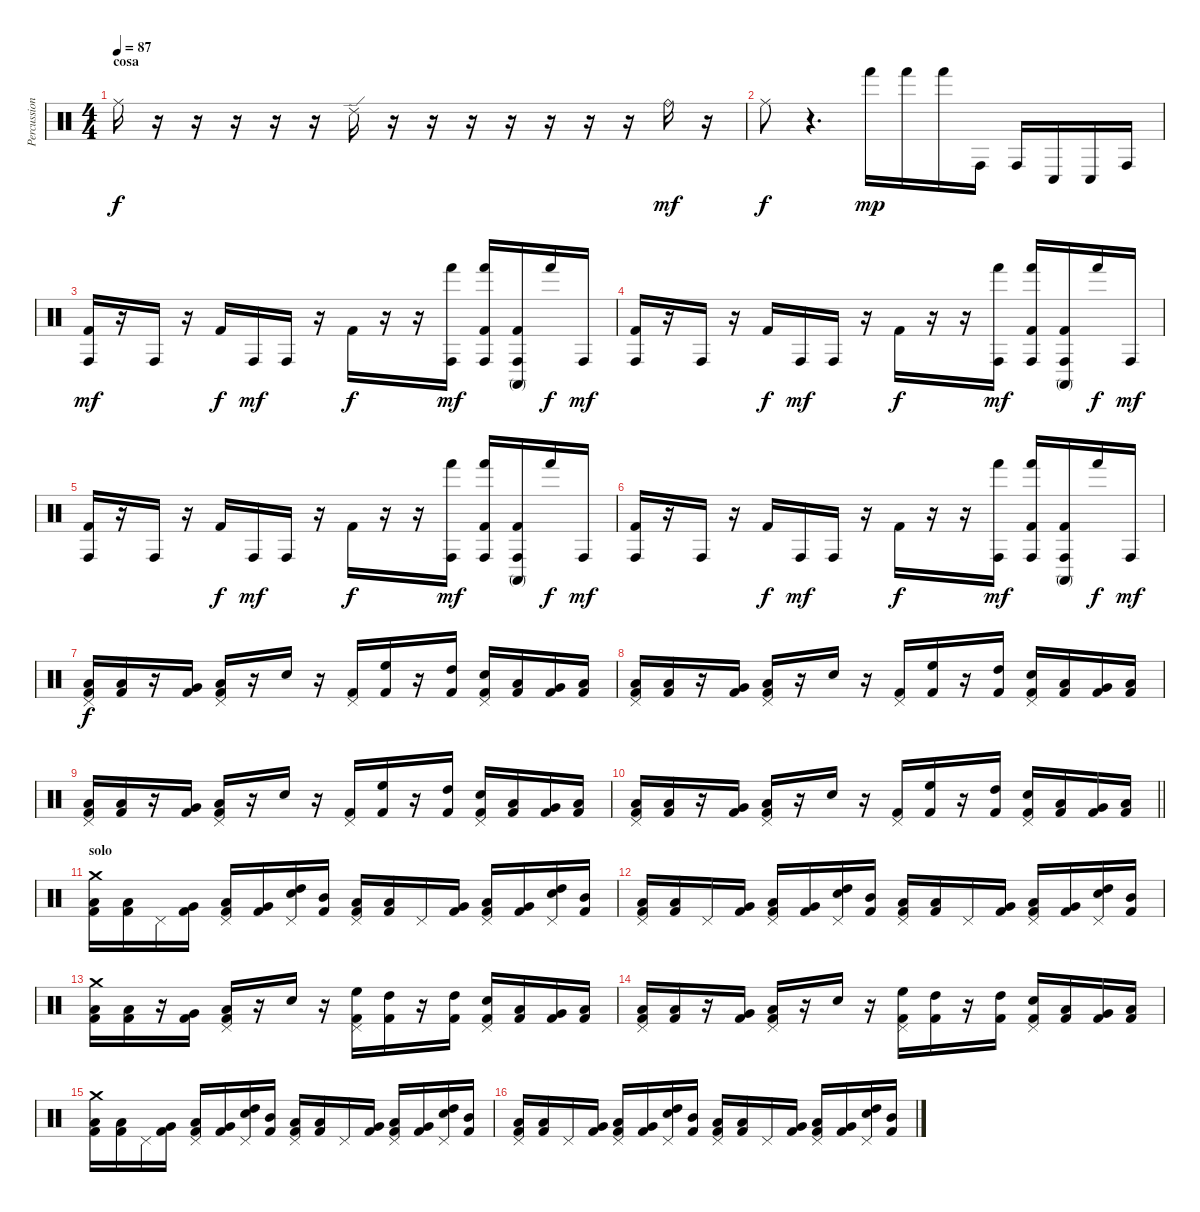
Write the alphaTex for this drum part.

\track ("Percussion" "Percussion") {instrument percussion}
\staff {score}
\articulation defaults
\ts (4 4)
\section ("" "cosa")
\tempo 87
\clef neutral
\ks c "Ride (middle)".16{dy f}
r.16 r.16 r.16 r.16 r.16 "Ride (edge) 2".16 r.16 r.16 r.16 r.16 r.16 r.16 r.16 "Ride (bell)".16{dy mf} r.16 |
"Ride (middle)".8{dy f} r.4{d} "Hand (hit)".16{dy mp} "Hand (hit)".16 "Hand (hit)".16 "Conga high (hit)".16 "Conga high (hit)".16 "Conga low (hit)".16 "Conga low (hit)".16 "Conga high (hit)".16 |
("Conga high (hit)" "Kick (hit) 2").16{dy mf} r.16 "Conga high (hit)".16 r.16 "Kick (hit) 2".16{dy f} "Conga high (hit)".16{dy mf} "Conga high (hit)".16 r.16 "Kick (hit) 2".16{dy f} r.16 r.16 ("Hand (hit)" "Conga high (hit)").16{dy mf} ("Hand (hit)" "Conga high (hit)" "Kick (hit) 2").16 ("Conga high (mute)" "Conga high (hit)" "Kick (hit) 2").16 "Hand (hit)".16{dy f} "Conga high (hit)".16{dy mf} |
("Conga high (hit)" "Kick (hit) 2").16 r.16 "Conga high (hit)".16 r.16 "Kick (hit) 2".16{dy f} "Conga high (hit)".16{dy mf} "Conga high (hit)".16 r.16 "Kick (hit) 2".16{dy f} r.16 r.16 ("Hand (hit)" "Conga high (hit)").16{dy mf} ("Hand (hit)" "Conga high (hit)" "Kick (hit) 2").16 ("Conga high (mute)" "Conga high (hit)" "Kick (hit) 2").16 "Hand (hit)".16{dy f} "Conga high (hit)".16{dy mf} |
("Conga high (hit)" "Kick (hit) 2").16 r.16 "Conga high (hit)".16 r.16 "Kick (hit) 2".16{dy f} "Conga high (hit)".16{dy mf} "Conga high (hit)".16 r.16 "Kick (hit) 2".16{dy f} r.16 r.16 ("Hand (hit)" "Conga high (hit)").16{dy mf} ("Hand (hit)" "Conga high (hit)" "Kick (hit) 2").16 ("Conga high (mute)" "Conga high (hit)" "Kick (hit) 2").16 "Hand (hit)".16{dy f} "Conga high (hit)".16{dy mf} |
("Conga high (hit)" "Kick (hit) 2").16 r.16 "Conga high (hit)".16 r.16 "Kick (hit) 2".16{dy f} "Conga high (hit)".16{dy mf} "Conga high (hit)".16 r.16 "Kick (hit) 2".16{dy f} r.16 r.16 ("Hand (hit)" "Conga high (hit)").16{dy mf} ("Hand (hit)" "Conga high (hit)" "Kick (hit) 2").16 ("Conga high (mute)" "Conga high (hit)" "Kick (hit) 2").16 "Hand (hit)".16{dy f} "Conga high (hit)".16{dy mf} |
("Pedal Hi-Hat (hit)" "Low Floor Tom (hit)" "Kick (hit) 2").16{dy f} ("Low Floor Tom (hit)" "Kick (hit) 2").16 r.16 ("Very Low Tom (hit)" "Kick (hit) 2").16 ("Pedal Hi-Hat (hit)" "Low Tom (hit)" "Kick (hit) 2").16 r.16 "Electric Snare (hit)".16 r.16 ("Pedal Hi-Hat (hit)" "Kick (hit) 2").16 ("High Floor Tom (hit)" "Kick (hit) 2").16 r.16 ("High Tom (hit)" "Kick (hit) 2").16 ("Pedal Hi-Hat (hit)" "Electric Snare (hit)" "Kick (hit) 2").16 ("Low Tom (hit)" "Kick (hit) 2").16 ("Very Low Tom (hit)" "Kick (hit) 2").16 ("Low Floor Tom (hit)" "Kick (hit) 2").16 |
("Pedal Hi-Hat (hit)" "Low Floor Tom (hit)" "Kick (hit) 2").16 ("Low Floor Tom (hit)" "Kick (hit) 2").16 r.16 ("Very Low Tom (hit)" "Kick (hit) 2").16 ("Pedal Hi-Hat (hit)" "Low Tom (hit)" "Kick (hit) 2").16 r.16 "Electric Snare (hit)".16 r.16 ("Pedal Hi-Hat (hit)" "Kick (hit) 2").16 ("High Floor Tom (hit)" "Kick (hit) 2").16 r.16 ("High Tom (hit)" "Kick (hit) 2").16 ("Pedal Hi-Hat (hit)" "Electric Snare (hit)" "Kick (hit) 2").16 ("Low Tom (hit)" "Kick (hit) 2").16 ("Very Low Tom (hit)" "Kick (hit) 2").16 ("Low Floor Tom (hit)" "Kick (hit) 2").16 |
("Pedal Hi-Hat (hit)" "Low Floor Tom (hit)" "Kick (hit) 2").16 ("Low Floor Tom (hit)" "Kick (hit) 2").16 r.16 ("Very Low Tom (hit)" "Kick (hit) 2").16 ("Pedal Hi-Hat (hit)" "Low Tom (hit)" "Kick (hit) 2").16 r.16 "Electric Snare (hit)".16 r.16 ("Pedal Hi-Hat (hit)" "Kick (hit) 2").16 ("High Floor Tom (hit)" "Kick (hit) 2").16 r.16 ("High Tom (hit)" "Kick (hit) 2").16 ("Pedal Hi-Hat (hit)" "Electric Snare (hit)" "Kick (hit) 2").16 ("Low Tom (hit)" "Kick (hit) 2").16 ("Very Low Tom (hit)" "Kick (hit) 2").16 ("Low Floor Tom (hit)" "Kick (hit) 2").16 |
\barLineRight lightlight
("Pedal Hi-Hat (hit)" "Low Floor Tom (hit)" "Kick (hit) 2").16 ("Low Floor Tom (hit)" "Kick (hit) 2").16 r.16 ("Very Low Tom (hit)" "Kick (hit) 2").16 ("Pedal Hi-Hat (hit)" "Low Tom (hit)" "Kick (hit) 2").16 r.16 "Electric Snare (hit)".16 r.16 ("Pedal Hi-Hat (hit)" "Kick (hit) 2").16 ("High Floor Tom (hit)" "Kick (hit) 2").16 r.16 ("High Tom (hit)" "Kick (hit) 2").16 ("Pedal Hi-Hat (hit)" "Electric Snare (hit)" "Kick (hit) 2").16 ("Low Tom (hit)" "Kick (hit) 2").16 ("Very Low Tom (hit)" "Kick (hit) 2").16 ("Low Floor Tom (hit)" "Kick (hit) 2").16 |
\section ("" "solo")
("Crash medium (hit)" "Low Floor Tom (hit)" "Kick (hit) 2").16 ("Low Tom (hit)" "Kick (hit) 2").16 "Pedal Hi-Hat (hit)".16 ("Very Low Tom (hit)" "Kick (hit) 2").16 ("Pedal Hi-Hat (hit)" "Low Tom (hit)" "Kick (hit) 2").16 ("Very Low Tom (hit)" "Kick (hit) 2").16 ("Pedal Hi-Hat (hit)" "High Tom (hit)" "Electric Snare (hit)").16 ("Mid Tom (hit)" "Kick (hit) 2").16 ("Pedal Hi-Hat (hit)" "Low Floor Tom (hit)" "Kick (hit) 2").16 ("Low Tom (hit)" "Kick (hit) 2").16 "Pedal Hi-Hat (hit)".16 ("Very Low Tom (hit)" "Kick (hit) 2").16 ("Pedal Hi-Hat (hit)" "Low Tom (hit)" "Kick (hit) 2").16 ("Very Low Tom (hit)" "Kick (hit) 2").16 ("Pedal Hi-Hat (hit)" "High Tom (hit)" "Electric Snare (hit)").16 ("Mid Tom (hit)" "Kick (hit) 2").16 |
("Pedal Hi-Hat (hit)" "Low Floor Tom (hit)" "Kick (hit) 2").16 ("Low Tom (hit)" "Kick (hit) 2").16 "Pedal Hi-Hat (hit)".16 ("Very Low Tom (hit)" "Kick (hit) 2").16 ("Pedal Hi-Hat (hit)" "Low Tom (hit)" "Kick (hit) 2").16 ("Very Low Tom (hit)" "Kick (hit) 2").16 ("Pedal Hi-Hat (hit)" "High Tom (hit)" "Electric Snare (hit)").16 ("Mid Tom (hit)" "Kick (hit) 2").16 ("Pedal Hi-Hat (hit)" "Low Floor Tom (hit)" "Kick (hit) 2").16 ("Low Tom (hit)" "Kick (hit) 2").16 "Pedal Hi-Hat (hit)".16 ("Very Low Tom (hit)" "Kick (hit) 2").16 ("Pedal Hi-Hat (hit)" "Low Tom (hit)" "Kick (hit) 2").16 ("Very Low Tom (hit)" "Kick (hit) 2").16 ("Pedal Hi-Hat (hit)" "High Tom (hit)" "Electric Snare (hit)").16 ("Mid Tom (hit)" "Kick (hit) 2").16 |
("Crash medium (hit)" "Low Floor Tom (hit)" "Kick (hit) 2").16 ("Low Floor Tom (hit)" "Kick (hit) 2").16 r.16 ("Very Low Tom (hit)" "Kick (hit) 2").16 ("Pedal Hi-Hat (hit)" "Low Tom (hit)" "Kick (hit) 2").16 r.16 "Electric Snare (hit)".16 r.16 ("Pedal Hi-Hat (hit)" "High Floor Tom (hit)" "Kick (hit) 2").16 ("High Tom (hit)" "Kick (hit) 2").16 r.16 ("High Tom (hit)" "Kick (hit) 2").16 ("Pedal Hi-Hat (hit)" "Electric Snare (hit)" "Kick (hit) 2").16 ("Low Tom (hit)" "Kick (hit) 2").16 ("Very Low Tom (hit)" "Kick (hit) 2").16 ("Low Floor Tom (hit)" "Kick (hit) 2").16 |
("Pedal Hi-Hat (hit)" "Low Floor Tom (hit)" "Kick (hit) 2").16 ("Low Floor Tom (hit)" "Kick (hit) 2").16 r.16 ("Very Low Tom (hit)" "Kick (hit) 2").16 ("Pedal Hi-Hat (hit)" "Low Tom (hit)" "Kick (hit) 2").16 r.16 "Electric Snare (hit)".16 r.16 ("Pedal Hi-Hat (hit)" "High Floor Tom (hit)" "Kick (hit) 2").16 ("High Tom (hit)" "Kick (hit) 2").16 r.16 ("High Tom (hit)" "Kick (hit) 2").16 ("Pedal Hi-Hat (hit)" "Electric Snare (hit)" "Kick (hit) 2").16 ("Low Tom (hit)" "Kick (hit) 2").16 ("Very Low Tom (hit)" "Kick (hit) 2").16 ("Low Floor Tom (hit)" "Kick (hit) 2").16 |
("Crash medium (hit)" "Low Floor Tom (hit)" "Kick (hit) 2").16 ("Low Tom (hit)" "Kick (hit) 2").16 "Pedal Hi-Hat (hit)".16 ("Very Low Tom (hit)" "Kick (hit) 2").16 ("Pedal Hi-Hat (hit)" "Low Tom (hit)" "Kick (hit) 2").16 ("Very Low Tom (hit)" "Kick (hit) 2").16 ("Pedal Hi-Hat (hit)" "High Tom (hit)" "Electric Snare (hit)").16 ("Mid Tom (hit)" "Kick (hit) 2").16 ("Pedal Hi-Hat (hit)" "Low Floor Tom (hit)" "Kick (hit) 2").16 ("Low Tom (hit)" "Kick (hit) 2").16 "Pedal Hi-Hat (hit)".16 ("Very Low Tom (hit)" "Kick (hit) 2").16 ("Pedal Hi-Hat (hit)" "Low Tom (hit)" "Kick (hit) 2").16 ("Very Low Tom (hit)" "Kick (hit) 2").16 ("Pedal Hi-Hat (hit)" "High Tom (hit)" "Electric Snare (hit)").16 ("Mid Tom (hit)" "Kick (hit) 2").16 |
("Pedal Hi-Hat (hit)" "Low Floor Tom (hit)" "Kick (hit) 2").16 ("Low Tom (hit)" "Kick (hit) 2").16 "Pedal Hi-Hat (hit)".16 ("Very Low Tom (hit)" "Kick (hit) 2").16 ("Pedal Hi-Hat (hit)" "Low Tom (hit)" "Kick (hit) 2").16 ("Very Low Tom (hit)" "Kick (hit) 2").16 ("Pedal Hi-Hat (hit)" "High Tom (hit)" "Electric Snare (hit)").16 ("Mid Tom (hit)" "Kick (hit) 2").16 ("Pedal Hi-Hat (hit)" "Low Floor Tom (hit)" "Kick (hit) 2").16 ("Low Tom (hit)" "Kick (hit) 2").16 "Pedal Hi-Hat (hit)".16 ("Very Low Tom (hit)" "Kick (hit) 2").16 ("Pedal Hi-Hat (hit)" "Low Tom (hit)" "Kick (hit) 2").16 ("Very Low Tom (hit)" "Kick (hit) 2").16 ("Pedal Hi-Hat (hit)" "High Tom (hit)" "Electric Snare (hit)").16 ("Mid Tom (hit)" "Kick (hit) 2").16
